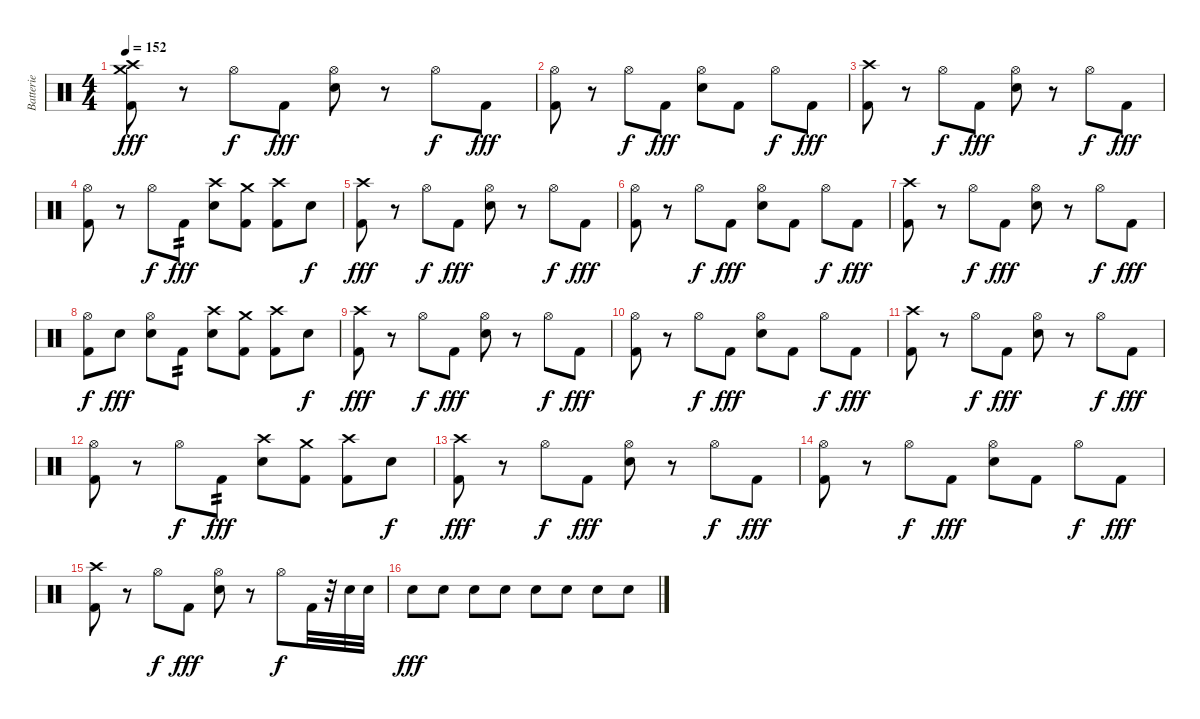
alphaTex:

\track ("Batterie" "Batterie") {instrument percussion}
\staff {score}
\articulation defaults
\ts (4 4)
\section ("" "")
\tempo 152
\clef neutral
\ks c
("Crash high (hit)" "Crash medium (hit)" "Kick (hit) 2").8{dy fff volume 8} r.8 "Hi-Hat (open)".8{dy f} "Kick (hit) 2".8{dy fff} ("Hi-Hat (open)" "Electric Snare (hit)").8 r.8 "Hi-Hat (open)".8{dy f} "Kick (hit) 2".8{dy fff} |
("Hi-Hat (open)" "Kick (hit) 2").8 r.8 "Hi-Hat (open)".8{dy f} "Kick (hit) 2".8{dy fff} ("Hi-Hat (open)" "Electric Snare (hit)").8 "Kick (hit) 2".8 "Hi-Hat (open)".8{dy f} "Kick (hit) 2".8{dy fff} |
("Crash high (hit)" "Kick (hit) 2").8 r.8 "Hi-Hat (open)".8{dy f} "Kick (hit) 2".8{dy fff} ("Hi-Hat (open)" "Electric Snare (hit)").8 r.8 "Hi-Hat (open)".8{dy f} "Kick (hit) 2".8{dy fff} |
("Hi-Hat (open)" "Kick (hit) 2").8 r.8 "Hi-Hat (open)".8{dy f} "Kick (hit) 2".8{tp 2 dy fff} ("Crash high (hit)" "Electric Snare (hit)").8 ("Crash medium (hit)" "Kick (hit) 2").8 ("Crash high (hit)" "Kick (hit) 2").8 "Electric Snare (hit)".8{dy f} |
("Crash high (hit)" "Kick (hit) 2").8{dy fff} r.8 "Hi-Hat (open)".8{dy f} "Kick (hit) 2".8{dy fff} ("Hi-Hat (open)" "Electric Snare (hit)").8 r.8 "Hi-Hat (open)".8{dy f} "Kick (hit) 2".8{dy fff} |
("Hi-Hat (open)" "Kick (hit) 2").8 r.8 "Hi-Hat (open)".8{dy f} "Kick (hit) 2".8{dy fff} ("Hi-Hat (open)" "Electric Snare (hit)").8 "Kick (hit) 2".8 "Hi-Hat (open)".8{dy f} "Kick (hit) 2".8{dy fff} |
("Crash high (hit)" "Kick (hit) 2").8 r.8 "Hi-Hat (open)".8{dy f} "Kick (hit) 2".8{dy fff} ("Hi-Hat (open)" "Electric Snare (hit)").8 r.8 "Hi-Hat (open)".8{dy f} "Kick (hit) 2".8{dy fff} |
("Hi-Hat (open)" "Kick (hit) 2").8{dy f} "Electric Snare (hit)".8{dy fff} ("Hi-Hat (open)" "Electric Snare (hit)").8 "Kick (hit) 2".8{tp 2} ("Crash high (hit)" "Electric Snare (hit)").8 ("Crash medium (hit)" "Kick (hit) 2").8 ("Crash high (hit)" "Kick (hit) 2").8 "Electric Snare (hit)".8{dy f} |
("Crash high (hit)" "Kick (hit) 2").8{dy fff volume 8} r.8 "Hi-Hat (open)".8{dy f} "Kick (hit) 2".8{dy fff} ("Hi-Hat (open)" "Electric Snare (hit)").8 r.8 "Hi-Hat (open)".8{dy f} "Kick (hit) 2".8{dy fff} |
("Hi-Hat (open)" "Kick (hit) 2").8 r.8 "Hi-Hat (open)".8{dy f} "Kick (hit) 2".8{dy fff} ("Hi-Hat (open)" "Electric Snare (hit)").8 "Kick (hit) 2".8 "Hi-Hat (open)".8{dy f} "Kick (hit) 2".8{dy fff} |
("Crash high (hit)" "Kick (hit) 2").8 r.8 "Hi-Hat (open)".8{dy f} "Kick (hit) 2".8{dy fff} ("Hi-Hat (open)" "Electric Snare (hit)").8 r.8 "Hi-Hat (open)".8{dy f} "Kick (hit) 2".8{dy fff} |
("Hi-Hat (open)" "Kick (hit) 2").8 r.8 "Hi-Hat (open)".8{dy f} "Kick (hit) 2".8{tp 2 dy fff} ("Crash high (hit)" "Electric Snare (hit)").8 ("Crash medium (hit)" "Kick (hit) 2").8 ("Crash high (hit)" "Kick (hit) 2").8 "Electric Snare (hit)".8{dy f} |
("Crash high (hit)" "Kick (hit) 2").8{dy fff} r.8 "Hi-Hat (open)".8{dy f} "Kick (hit) 2".8{dy fff} ("Hi-Hat (open)" "Electric Snare (hit)").8 r.8 "Hi-Hat (open)".8{dy f} "Kick (hit) 2".8{dy fff} |
("Hi-Hat (open)" "Kick (hit) 2").8 r.8 "Hi-Hat (open)".8{dy f} "Kick (hit) 2".8{dy fff} ("Hi-Hat (open)" "Electric Snare (hit)").8 "Kick (hit) 2".8 "Hi-Hat (open)".8{dy f} "Kick (hit) 2".8{dy fff} |
("Crash high (hit)" "Kick (hit) 2").8 r.8 "Hi-Hat (open)".8{dy f} "Kick (hit) 2".8{dy fff} ("Hi-Hat (open)" "Electric Snare (hit)").8 r.8 "Hi-Hat (open)".8{dy f} "Kick (hit) 2".32 r.32 "Electric Snare (hit)".32 "Electric Snare (hit)".32 |
"Electric Snare (hit)".8{dy fff} "Electric Snare (hit)".8 "Electric Snare (hit)".8 "Electric Snare (hit)".8 "Electric Snare (hit)".8 "Electric Snare (hit)".8 "Electric Snare (hit)".8 "Electric Snare (hit)".8
